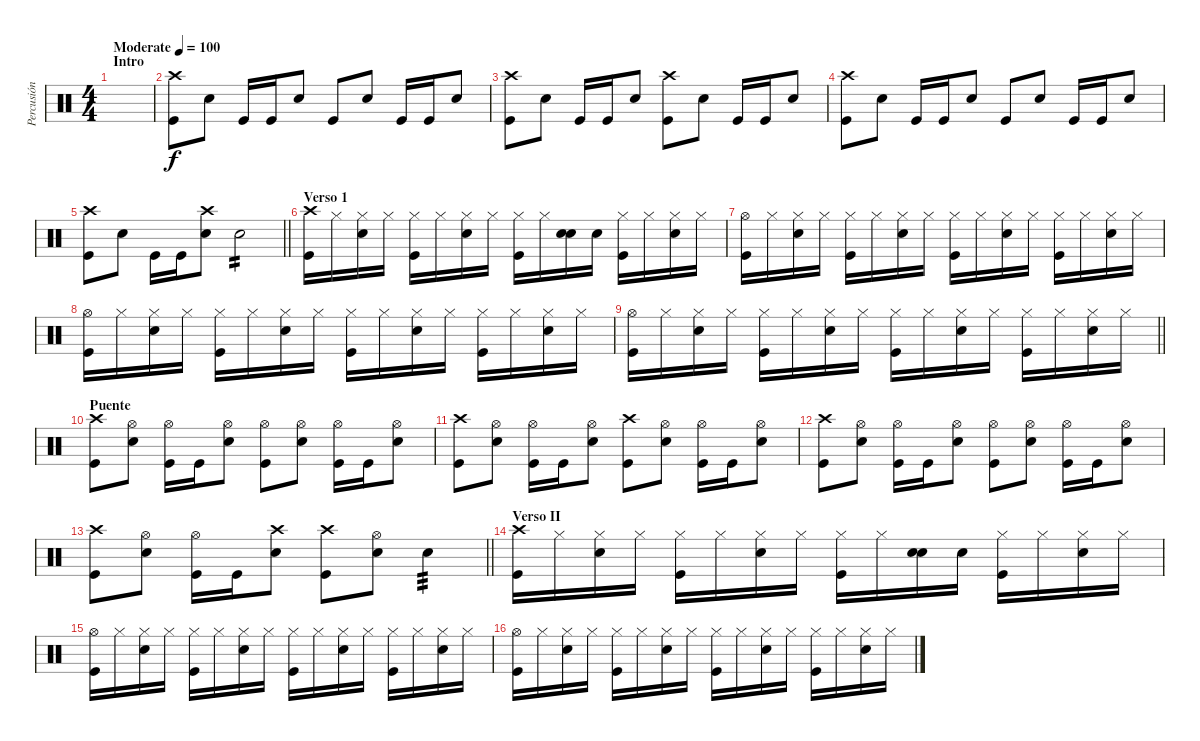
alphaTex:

\track ("Percusión" "Percusión") {instrument percussion}
\staff {score}
\articulation defaults
\ts (4 4)
\section ("" "Intro")
\tempo (100 "Moderate")
\clef neutral
\ks c
|
("Crash high (hit)" "Kick (hit)").8 "Electric Snare (hit)".8 "Kick (hit)".16 "Kick (hit)".16 "Electric Snare (hit)".8 "Kick (hit)".8 "Electric Snare (hit)".8 "Kick (hit)".16 "Kick (hit)".16 "Electric Snare (hit)".8 |
("Crash high (hit)" "Kick (hit)").8 "Electric Snare (hit)".8 "Kick (hit)".16 "Kick (hit)".16 "Electric Snare (hit)".8 ("Crash high (hit)" "Kick (hit)").8 "Electric Snare (hit)".8 "Kick (hit)".16 "Kick (hit)".16 "Electric Snare (hit)".8 |
("Crash high (hit)" "Kick (hit)").8 "Electric Snare (hit)".8 "Kick (hit)".16 "Kick (hit)".16 "Electric Snare (hit)".8 "Kick (hit)".8 "Electric Snare (hit)".8 "Kick (hit)".16 "Kick (hit)".16 "Electric Snare (hit)".8 |
\barLineRight lightlight
("Crash high (hit)" "Kick (hit)").8 "Electric Snare (hit)".8 "Kick (hit)".16 "Kick (hit)".16 ("Crash high (hit)" "Electric Snare (hit)").8 "Electric Snare (hit)".2{tp 2} |
\section ("" "Verso 1")
("Crash high (hit)" "Kick (hit)").16 "Hi-Hat (closed)".16 ("Hi-Hat (closed)" "Electric Snare (hit)").16 "Hi-Hat (closed)".16 ("Hi-Hat (closed)" "Kick (hit)").16 "Hi-Hat (closed)".16 ("Hi-Hat (closed)" "Electric Snare (hit)").16 "Hi-Hat (closed)".16 ("Hi-Hat (closed)" "Kick (hit)").16 "Hi-Hat (closed)".16 ("Snare (hit)" "Electric Snare (hit)").16 "Snare (hit)".16 ("Hi-Hat (closed)" "Kick (hit)").16 "Hi-Hat (closed)".16 ("Hi-Hat (closed)" "Electric Snare (hit)").16 "Hi-Hat (closed)".16 |
("Hi-Hat (open)" "Kick (hit)").16 "Hi-Hat (closed)".16 ("Hi-Hat (closed)" "Electric Snare (hit)").16 "Hi-Hat (closed)".16 ("Hi-Hat (closed)" "Kick (hit)").16 "Hi-Hat (closed)".16 ("Hi-Hat (closed)" "Electric Snare (hit)").16 "Hi-Hat (closed)".16 ("Hi-Hat (closed)" "Kick (hit)").16 "Hi-Hat (closed)".16 ("Hi-Hat (closed)" "Electric Snare (hit)").16 "Hi-Hat (closed)".16 ("Hi-Hat (closed)" "Kick (hit)").16 "Hi-Hat (closed)".16 ("Hi-Hat (closed)" "Electric Snare (hit)").16 "Hi-Hat (closed)".16 |
("Hi-Hat (open)" "Kick (hit)").16 "Hi-Hat (closed)".16 ("Hi-Hat (closed)" "Electric Snare (hit)").16 "Hi-Hat (closed)".16 ("Hi-Hat (closed)" "Kick (hit)").16 "Hi-Hat (closed)".16 ("Hi-Hat (closed)" "Electric Snare (hit)").16 "Hi-Hat (closed)".16 ("Hi-Hat (closed)" "Kick (hit)").16 "Hi-Hat (closed)".16 ("Hi-Hat (closed)" "Electric Snare (hit)").16 "Hi-Hat (closed)".16 ("Hi-Hat (closed)" "Kick (hit)").16 "Hi-Hat (closed)".16 ("Hi-Hat (closed)" "Electric Snare (hit)").16 "Hi-Hat (closed)".16 |
\barLineRight lightlight
("Hi-Hat (open)" "Kick (hit)").16 "Hi-Hat (closed)".16 ("Hi-Hat (closed)" "Electric Snare (hit)").16 "Hi-Hat (closed)".16 ("Hi-Hat (closed)" "Kick (hit)").16 "Hi-Hat (closed)".16 ("Hi-Hat (closed)" "Electric Snare (hit)").16 "Hi-Hat (closed)".16 ("Hi-Hat (closed)" "Kick (hit)").16 "Hi-Hat (closed)".16 ("Hi-Hat (closed)" "Electric Snare (hit)").16 "Hi-Hat (closed)".16 ("Hi-Hat (closed)" "Kick (hit)").16 "Hi-Hat (closed)".16 ("Hi-Hat (closed)" "Electric Snare (hit)").16 "Hi-Hat (closed)".16 |
\section ("" "Puente")
("Crash high (hit)" "Kick (hit)").8 ("Hi-Hat (open)" "Electric Snare (hit)").8 ("Hi-Hat (open)" "Kick (hit)").16 "Kick (hit)".16 ("Hi-Hat (open)" "Electric Snare (hit)").8 ("Hi-Hat (open)" "Kick (hit)").8 ("Hi-Hat (open)" "Electric Snare (hit)").8 ("Hi-Hat (open)" "Kick (hit)").16 "Kick (hit)".16 ("Hi-Hat (open)" "Electric Snare (hit)").8 |
("Crash high (hit)" "Kick (hit)").8 ("Hi-Hat (open)" "Electric Snare (hit)").8 ("Hi-Hat (open)" "Kick (hit)").16 "Kick (hit)".16 ("Hi-Hat (open)" "Electric Snare (hit)").8 ("Crash high (hit)" "Kick (hit)").8 ("Hi-Hat (open)" "Electric Snare (hit)").8 ("Hi-Hat (open)" "Kick (hit)").16 "Kick (hit)".16 ("Hi-Hat (open)" "Electric Snare (hit)").8 |
("Crash high (hit)" "Kick (hit)").8 ("Hi-Hat (open)" "Electric Snare (hit)").8 ("Hi-Hat (open)" "Kick (hit)").16 "Kick (hit)".16 ("Hi-Hat (open)" "Electric Snare (hit)").8 ("Hi-Hat (open)" "Kick (hit)").8 ("Hi-Hat (open)" "Electric Snare (hit)").8 ("Hi-Hat (open)" "Kick (hit)").16 "Kick (hit)".16 ("Hi-Hat (open)" "Electric Snare (hit)").8 |
\barLineRight lightlight
("Crash high (hit)" "Kick (hit)").8 ("Hi-Hat (open)" "Electric Snare (hit)").8 ("Hi-Hat (open)" "Kick (hit)").16 "Kick (hit)".16 ("Crash high (hit)" "Electric Snare (hit)").8 ("Crash high (hit)" "Kick (hit)").8 ("Hi-Hat (open)" "Electric Snare (hit)").8 "Electric Snare (hit)".4{tp 3} |
\section ("" "Verso II")
("Crash high (hit)" "Kick (hit)").16 "Hi-Hat (closed)".16 ("Hi-Hat (closed)" "Electric Snare (hit)").16 "Hi-Hat (closed)".16 ("Hi-Hat (closed)" "Kick (hit)").16 "Hi-Hat (closed)".16 ("Hi-Hat (closed)" "Electric Snare (hit)").16 "Hi-Hat (closed)".16 ("Hi-Hat (closed)" "Kick (hit)").16 "Hi-Hat (closed)".16 ("Snare (hit)" "Electric Snare (hit)").16 "Snare (hit)".16 ("Hi-Hat (closed)" "Kick (hit)").16 "Hi-Hat (closed)".16 ("Hi-Hat (closed)" "Electric Snare (hit)").16 "Hi-Hat (closed)".16 |
("Hi-Hat (open)" "Kick (hit)").16 "Hi-Hat (closed)".16 ("Hi-Hat (closed)" "Electric Snare (hit)").16 "Hi-Hat (closed)".16 ("Hi-Hat (closed)" "Kick (hit)").16 "Hi-Hat (closed)".16 ("Hi-Hat (closed)" "Electric Snare (hit)").16 "Hi-Hat (closed)".16 ("Hi-Hat (closed)" "Kick (hit)").16 "Hi-Hat (closed)".16 ("Hi-Hat (closed)" "Electric Snare (hit)").16 "Hi-Hat (closed)".16 ("Hi-Hat (closed)" "Kick (hit)").16 "Hi-Hat (closed)".16 ("Hi-Hat (closed)" "Electric Snare (hit)").16 "Hi-Hat (closed)".16 |
("Hi-Hat (open)" "Kick (hit)").16 "Hi-Hat (closed)".16 ("Hi-Hat (closed)" "Electric Snare (hit)").16 "Hi-Hat (closed)".16 ("Hi-Hat (closed)" "Kick (hit)").16 "Hi-Hat (closed)".16 ("Hi-Hat (closed)" "Electric Snare (hit)").16 "Hi-Hat (closed)".16 ("Hi-Hat (closed)" "Kick (hit)").16 "Hi-Hat (closed)".16 ("Hi-Hat (closed)" "Electric Snare (hit)").16 "Hi-Hat (closed)".16 ("Hi-Hat (closed)" "Kick (hit)").16 "Hi-Hat (closed)".16 ("Hi-Hat (closed)" "Electric Snare (hit)").16 "Hi-Hat (closed)".16
